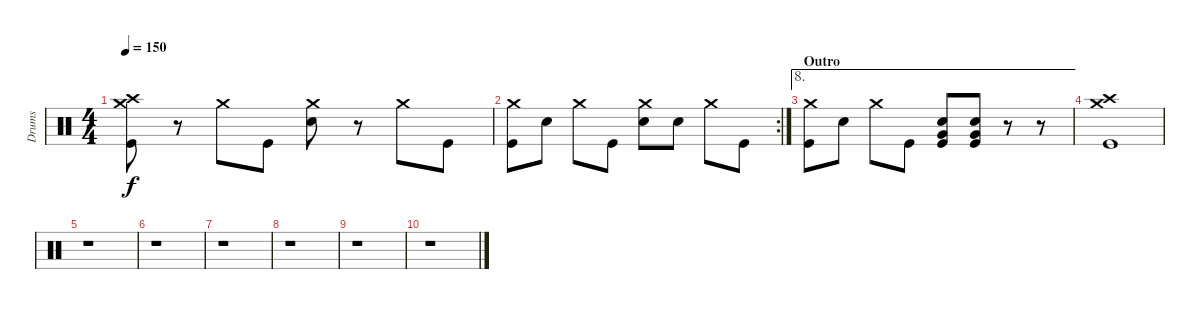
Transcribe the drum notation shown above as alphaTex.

\track ("Drums" "Drums") {instrument percussion}
\staff {score}
\articulation defaults
\ts (4 4)
\tempo 150
\clef neutral
\ks c
("Crash medium (hit)" "Crash high (hit)" "Kick (hit)").8{dy f} r.8 "Crash medium (hit)".8 "Kick (hit)".8 ("Crash medium (hit)" "Electric Snare (hit)").8 r.8 "Crash medium (hit)".8 "Kick (hit)".8 |
\rc 2
("Crash medium (hit)" "Kick (hit)").8 "Electric Snare (hit)".8 "Crash medium (hit)".8 "Kick (hit)".8 ("Crash medium (hit)" "Electric Snare (hit)").8 "Electric Snare (hit)".8 "Crash medium (hit)".8 "Kick (hit)".8 |
\ae 8
\section ("" "Outro")
("Crash medium (hit)" "Kick (hit)").8 "Electric Snare (hit)".8 "Crash medium (hit)".8 "Kick (hit)".8 ("Electric Snare (hit)" "Very Low Tom (hit)" "Kick (hit)").8 ("Electric Snare (hit)" "Very Low Tom (hit)" "Kick (hit)").8 r.8 r.8 |
("Crash medium (hit)" "Crash high (hit)" "Kick (hit)").1 |
r.1 |
r.1 |
r.1 |
r.1 |
r.1 |
r.1
